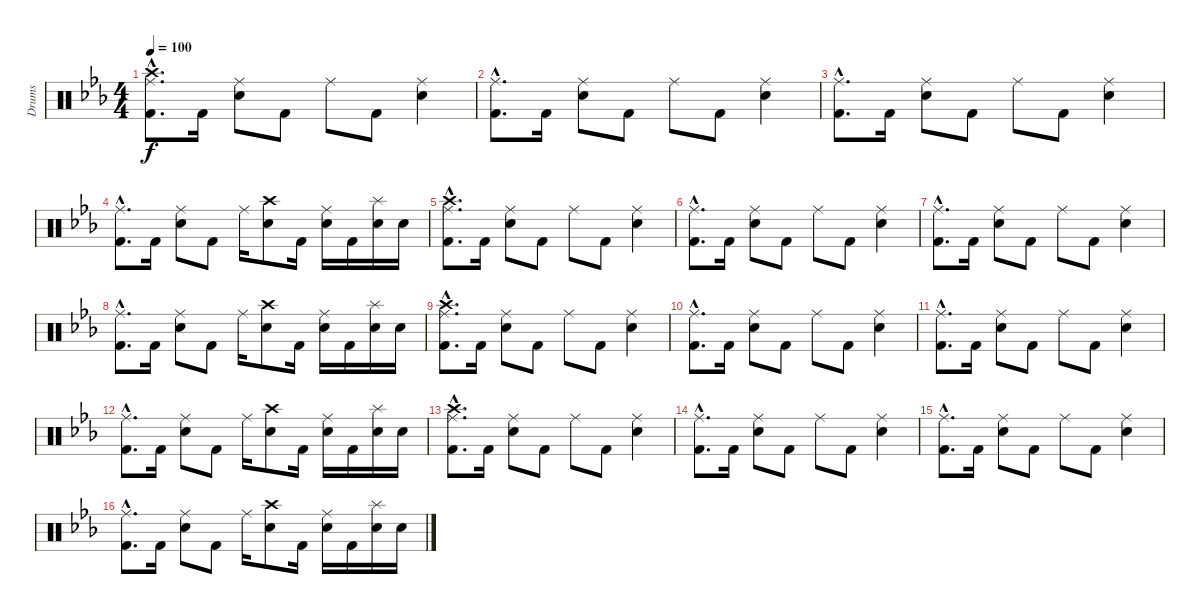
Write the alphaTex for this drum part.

\track ("Drums" "Drums") {instrument percussion}
\staff {score}
\articulation defaults
\ts (4 4)
\tempo 100
\clef neutral
\ks cminor
("Ride (middle)"{hac} "Crash high (hit)"{hac} "Kick (hit) 2"{hac}).8{d dy f} "Kick (hit) 2".16 ("Ride (middle)" "Electric Snare (hit)").8 "Kick (hit) 2".8 "Ride (middle)".8 "Kick (hit) 2".8 ("Ride (middle)" "Electric Snare (hit)").4 |
("Ride (middle)"{hac} "Kick (hit) 2"{hac}).8{d} "Kick (hit) 2".16 ("Ride (middle)" "Electric Snare (hit)").8 "Kick (hit) 2".8 "Ride (middle)".8 "Kick (hit) 2".8 ("Ride (middle)" "Electric Snare (hit)").4 |
("Ride (middle)"{hac} "Kick (hit) 2"{hac}).8{d} "Kick (hit) 2".16 ("Ride (middle)" "Electric Snare (hit)").8 "Kick (hit) 2".8 "Ride (middle)".8 "Kick (hit) 2".8 ("Ride (middle)" "Electric Snare (hit)").4 |
("Ride (middle)"{hac} "Kick (hit) 2"{hac}).8{d} "Kick (hit) 2".16 ("Ride (middle)" "Electric Snare (hit)").8 "Kick (hit) 2".8 "Ride (middle)".16 ("Crash high (hit)" "Electric Snare (hit)").8 "Kick (hit) 2".16 ("Ride (middle)" "Electric Snare (hit)").16 "Kick (hit) 2".16 ("Splash (hit)" "Electric Snare (hit)").16 "Electric Snare (hit)".16 |
("Ride (middle)"{hac} "Crash high (hit)"{hac} "Kick (hit) 2"{hac}).8{d} "Kick (hit) 2".16 ("Ride (middle)" "Electric Snare (hit)").8 "Kick (hit) 2".8 "Ride (middle)".8 "Kick (hit) 2".8 ("Ride (middle)" "Electric Snare (hit)").4 |
("Ride (middle)"{hac} "Kick (hit) 2"{hac}).8{d} "Kick (hit) 2".16 ("Ride (middle)" "Electric Snare (hit)").8 "Kick (hit) 2".8 "Ride (middle)".8 "Kick (hit) 2".8 ("Ride (middle)" "Electric Snare (hit)").4 |
("Ride (middle)"{hac} "Kick (hit) 2"{hac}).8{d} "Kick (hit) 2".16 ("Ride (middle)" "Electric Snare (hit)").8 "Kick (hit) 2".8 "Ride (middle)".8 "Kick (hit) 2".8 ("Ride (middle)" "Electric Snare (hit)").4 |
("Ride (middle)"{hac} "Kick (hit) 2"{hac}).8{d} "Kick (hit) 2".16 ("Ride (middle)" "Electric Snare (hit)").8 "Kick (hit) 2".8 "Ride (middle)".16 ("Crash high (hit)" "Electric Snare (hit)").8 "Kick (hit) 2".16 ("Ride (middle)" "Electric Snare (hit)").16 "Kick (hit) 2".16 ("Splash (hit)" "Electric Snare (hit)").16 "Electric Snare (hit)".16 |
("Ride (middle)"{hac} "Crash high (hit)"{hac} "Kick (hit) 2"{hac}).8{d} "Kick (hit) 2".16 ("Ride (middle)" "Electric Snare (hit)").8 "Kick (hit) 2".8 "Ride (middle)".8 "Kick (hit) 2".8 ("Ride (middle)" "Electric Snare (hit)").4 |
("Ride (middle)"{hac} "Kick (hit) 2"{hac}).8{d} "Kick (hit) 2".16 ("Ride (middle)" "Electric Snare (hit)").8 "Kick (hit) 2".8 "Ride (middle)".8 "Kick (hit) 2".8 ("Ride (middle)" "Electric Snare (hit)").4 |
("Ride (middle)"{hac} "Kick (hit) 2"{hac}).8{d} "Kick (hit) 2".16 ("Ride (middle)" "Electric Snare (hit)").8 "Kick (hit) 2".8 "Ride (middle)".8 "Kick (hit) 2".8 ("Ride (middle)" "Electric Snare (hit)").4 |
("Ride (middle)"{hac} "Kick (hit) 2"{hac}).8{d} "Kick (hit) 2".16 ("Ride (middle)" "Electric Snare (hit)").8 "Kick (hit) 2".8 "Ride (middle)".16 ("Crash high (hit)" "Electric Snare (hit)").8 "Kick (hit) 2".16 ("Ride (middle)" "Electric Snare (hit)").16 "Kick (hit) 2".16 ("Splash (hit)" "Electric Snare (hit)").16 "Electric Snare (hit)".16 |
("Ride (middle)"{hac} "Crash high (hit)"{hac} "Kick (hit) 2"{hac}).8{d} "Kick (hit) 2".16 ("Ride (middle)" "Electric Snare (hit)").8 "Kick (hit) 2".8 "Ride (middle)".8 "Kick (hit) 2".8 ("Ride (middle)" "Electric Snare (hit)").4 |
("Ride (middle)"{hac} "Kick (hit) 2"{hac}).8{d} "Kick (hit) 2".16 ("Ride (middle)" "Electric Snare (hit)").8 "Kick (hit) 2".8 "Ride (middle)".8 "Kick (hit) 2".8 ("Ride (middle)" "Electric Snare (hit)").4 |
("Ride (middle)"{hac} "Kick (hit) 2"{hac}).8{d} "Kick (hit) 2".16 ("Ride (middle)" "Electric Snare (hit)").8 "Kick (hit) 2".8 "Ride (middle)".8 "Kick (hit) 2".8 ("Ride (middle)" "Electric Snare (hit)").4 |
("Ride (middle)"{hac} "Kick (hit) 2"{hac}).8{d} "Kick (hit) 2".16 ("Ride (middle)" "Electric Snare (hit)").8 "Kick (hit) 2".8 "Ride (middle)".16 ("Crash high (hit)" "Electric Snare (hit)").8 "Kick (hit) 2".16 ("Ride (middle)" "Electric Snare (hit)").16 "Kick (hit) 2".16 ("Splash (hit)" "Electric Snare (hit)").16 "Electric Snare (hit)".16
